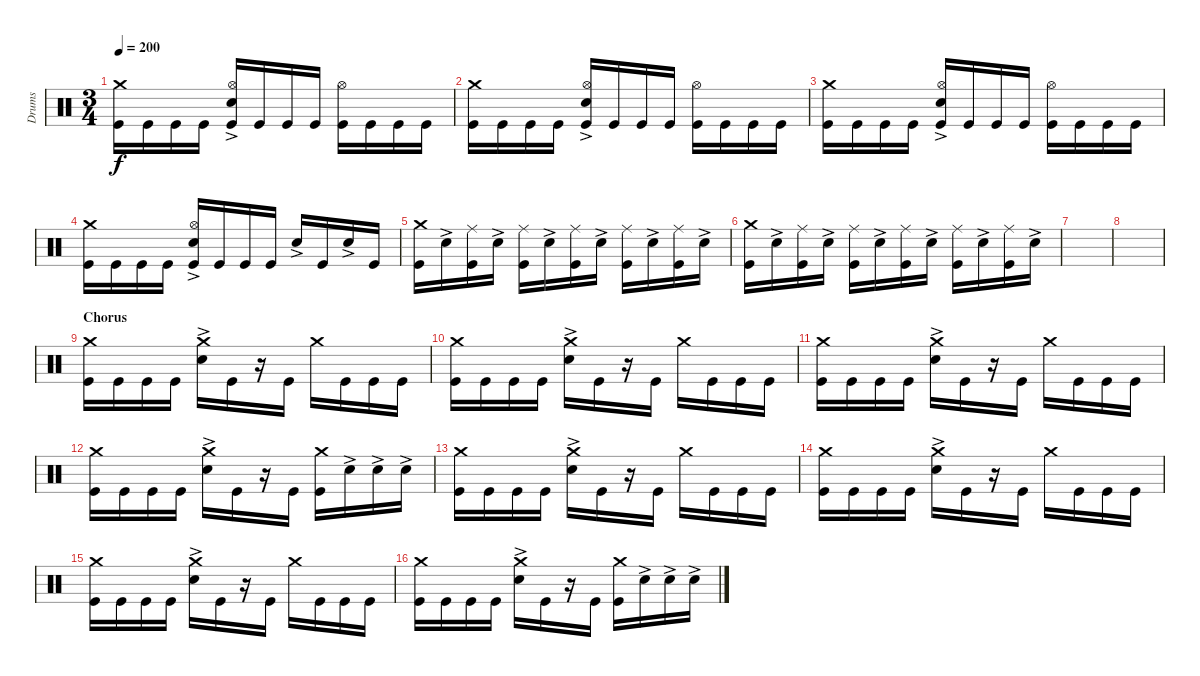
\track ("Drums" "Drums") {instrument percussion}
\staff {score}
\articulation defaults
\ts (3 4)
\tempo 200
\clef neutral
\ks c
("Kick (hit)" "Crash medium (hit)").16{dy f} "Kick (hit)".16 "Kick (hit)".16 "Kick (hit)".16 ("Kick (hit)" "Hi-Hat (open)" "Snare (hit) 2"{ac}).16 "Kick (hit)".16 "Kick (hit)".16 "Kick (hit)".16 ("Kick (hit)" "Hi-Hat (open)").16 "Kick (hit)".16 "Kick (hit)".16 "Kick (hit)".16 |
("Kick (hit)" "Crash medium (hit)").16 "Kick (hit)".16 "Kick (hit)".16 "Kick (hit)".16 ("Kick (hit)" "Hi-Hat (open)" "Snare (hit) 2"{ac}).16 "Kick (hit)".16 "Kick (hit)".16 "Kick (hit)".16 ("Kick (hit)" "Hi-Hat (open)").16 "Kick (hit)".16 "Kick (hit)".16 "Kick (hit)".16 |
("Kick (hit)" "Crash medium (hit)").16 "Kick (hit)".16 "Kick (hit)".16 "Kick (hit)".16 ("Kick (hit)" "Hi-Hat (open)" "Snare (hit) 2"{ac}).16 "Kick (hit)".16 "Kick (hit)".16 "Kick (hit)".16 ("Kick (hit)" "Hi-Hat (open)").16 "Kick (hit)".16 "Kick (hit)".16 "Kick (hit)".16 |
("Kick (hit)" "Crash medium (hit)").16 "Kick (hit)".16 "Kick (hit)".16 "Kick (hit)".16 ("Kick (hit)" "Hi-Hat (open)" "Snare (hit) 2"{ac}).16 "Kick (hit)".16 "Kick (hit)".16 "Kick (hit)".16 "Snare (hit) 2"{ac}.16 "Kick (hit)".16 "Snare (hit) 2"{ac}.16 "Kick (hit)".16 |
("Kick (hit)" "Crash medium (hit)").16 "Snare (hit) 2"{ac}.16 ("Kick (hit)" "Ride (middle)").16 "Snare (hit) 2"{ac}.16 ("Kick (hit)" "Ride (middle)").16 "Snare (hit) 2"{ac}.16 ("Kick (hit)" "Ride (middle)").16 "Snare (hit) 2"{ac}.16 ("Kick (hit)" "Ride (middle)").16 "Snare (hit) 2"{ac}.16 ("Kick (hit)" "Ride (middle)").16 "Snare (hit) 2"{ac}.16 |
("Kick (hit)" "Crash medium (hit)").16 "Snare (hit) 2"{ac}.16 ("Kick (hit)" "Ride (middle)").16 "Snare (hit) 2"{ac}.16 ("Kick (hit)" "Ride (middle)").16 "Snare (hit) 2"{ac}.16 ("Kick (hit)" "Ride (middle)").16 "Snare (hit) 2"{ac}.16 ("Kick (hit)" "Ride (middle)").16 "Snare (hit) 2"{ac}.16 ("Kick (hit)" "Ride (middle)").16 "Snare (hit) 2"{ac}.16 |
|
|
\section ("" "Chorus")
("Crash medium (hit)" "Kick (hit)").16 "Kick (hit)".16 "Kick (hit)".16 "Kick (hit)".16 ("Crash medium (hit)" "Snare (hit) 2"{ac}).16 "Kick (hit)".16 r.16 "Kick (hit)".16 "Crash medium (hit)".16 "Kick (hit)".16 "Kick (hit)".16 "Kick (hit)".16 |
("Crash medium (hit)" "Kick (hit)").16 "Kick (hit)".16 "Kick (hit)".16 "Kick (hit)".16 ("Crash medium (hit)" "Snare (hit) 2"{ac}).16 "Kick (hit)".16 r.16 "Kick (hit)".16 "Crash medium (hit)".16 "Kick (hit)".16 "Kick (hit)".16 "Kick (hit)".16 |
("Crash medium (hit)" "Kick (hit)").16 "Kick (hit)".16 "Kick (hit)".16 "Kick (hit)".16 ("Crash medium (hit)" "Snare (hit) 2"{ac}).16 "Kick (hit)".16 r.16 "Kick (hit)".16 "Crash medium (hit)".16 "Kick (hit)".16 "Kick (hit)".16 "Kick (hit)".16 |
("Crash medium (hit)" "Kick (hit)").16 "Kick (hit)".16 "Kick (hit)".16 "Kick (hit)".16 ("Crash medium (hit)" "Snare (hit) 2"{ac}).16 "Kick (hit)".16 r.16 "Kick (hit)".16 ("Kick (hit)" "Crash medium (hit)").16 "Snare (hit) 2"{ac}.16 "Snare (hit) 2"{ac}.16 "Snare (hit) 2"{ac}.16 |
("Crash medium (hit)" "Kick (hit)").16 "Kick (hit)".16 "Kick (hit)".16 "Kick (hit)".16 ("Crash medium (hit)" "Snare (hit) 2"{ac}).16 "Kick (hit)".16 r.16 "Kick (hit)".16 "Crash medium (hit)".16 "Kick (hit)".16 "Kick (hit)".16 "Kick (hit)".16 |
("Crash medium (hit)" "Kick (hit)").16 "Kick (hit)".16 "Kick (hit)".16 "Kick (hit)".16 ("Crash medium (hit)" "Snare (hit) 2"{ac}).16 "Kick (hit)".16 r.16 "Kick (hit)".16 "Crash medium (hit)".16 "Kick (hit)".16 "Kick (hit)".16 "Kick (hit)".16 |
("Crash medium (hit)" "Kick (hit)").16 "Kick (hit)".16 "Kick (hit)".16 "Kick (hit)".16 ("Crash medium (hit)" "Snare (hit) 2"{ac}).16 "Kick (hit)".16 r.16 "Kick (hit)".16 "Crash medium (hit)".16 "Kick (hit)".16 "Kick (hit)".16 "Kick (hit)".16 |
("Crash medium (hit)" "Kick (hit)").16 "Kick (hit)".16 "Kick (hit)".16 "Kick (hit)".16 ("Crash medium (hit)" "Snare (hit) 2"{ac}).16 "Kick (hit)".16 r.16 "Kick (hit)".16 ("Kick (hit)" "Crash medium (hit)").16 "Snare (hit) 2"{ac}.16 "Snare (hit) 2"{ac}.16 "Snare (hit) 2"{ac}.16
